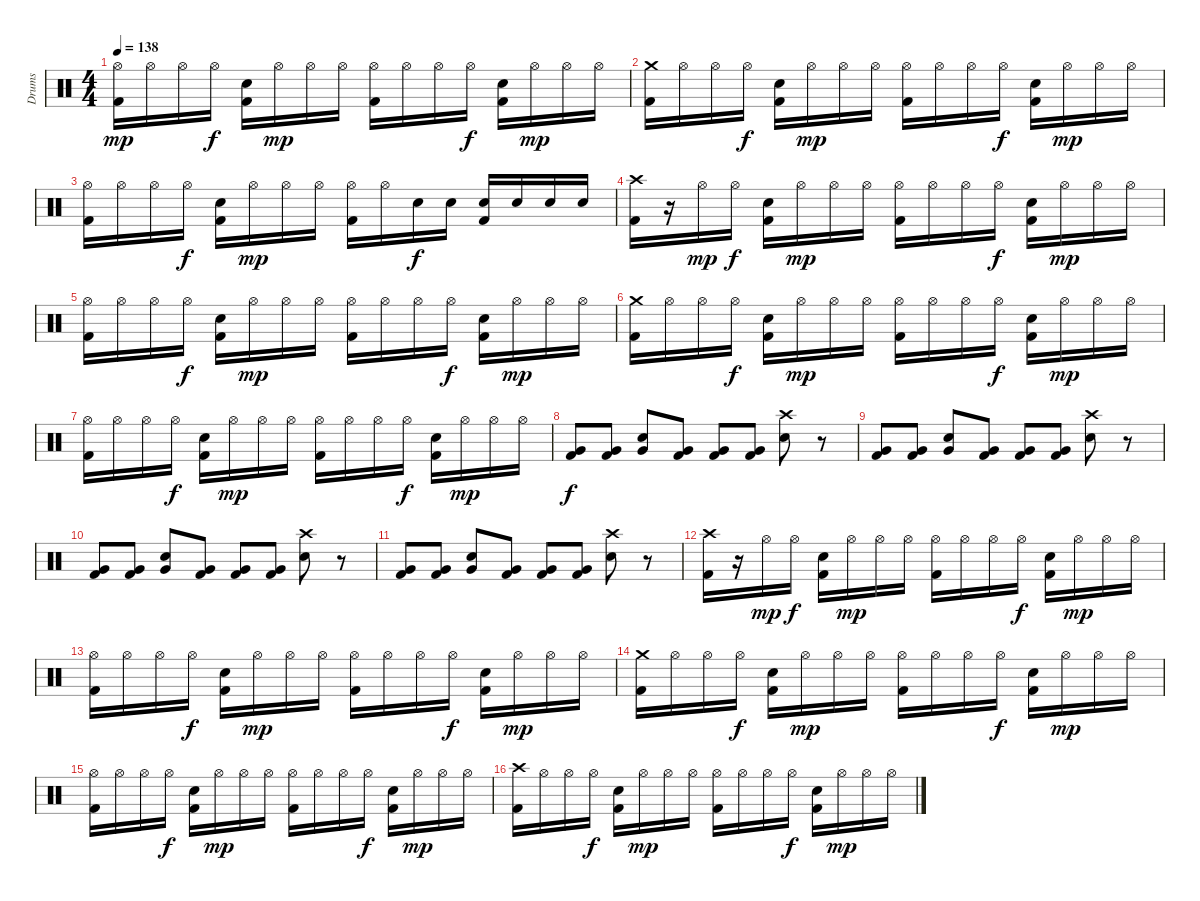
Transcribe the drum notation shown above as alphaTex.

\track ("Drums" "Drums") {instrument percussion}
\staff {score}
\articulation defaults
\ts (4 4)
\tempo 138
\clef neutral
\ks c
("Hi-Hat (open)" "Kick (hit) 2").16{dy mp} "Hi-Hat (open)".16 "Hi-Hat (open)".16 "Hi-Hat (open)".16{dy f} ("Electric Snare (hit)" "Kick (hit) 2").16 "Hi-Hat (open)".16{dy mp} "Hi-Hat (open)".16 "Hi-Hat (open)".16 ("Hi-Hat (open)" "Kick (hit) 2").16 "Hi-Hat (open)".16 "Hi-Hat (open)".16 "Hi-Hat (open)".16{dy f} ("Electric Snare (hit)" "Kick (hit) 2").16 "Hi-Hat (open)".16{dy mp} "Hi-Hat (open)".16 "Hi-Hat (open)".16 |
("Crash medium (hit)" "Kick (hit) 2").16 "Hi-Hat (open)".16 "Hi-Hat (open)".16 "Hi-Hat (open)".16{dy f} ("Electric Snare (hit)" "Kick (hit) 2").16 "Hi-Hat (open)".16{dy mp} "Hi-Hat (open)".16 "Hi-Hat (open)".16 ("Hi-Hat (open)" "Kick (hit) 2").16 "Hi-Hat (open)".16 "Hi-Hat (open)".16 "Hi-Hat (open)".16{dy f} ("Electric Snare (hit)" "Kick (hit) 2").16 "Hi-Hat (open)".16{dy mp} "Hi-Hat (open)".16 "Hi-Hat (open)".16 |
("Hi-Hat (open)" "Kick (hit) 2").16 "Hi-Hat (open)".16 "Hi-Hat (open)".16 "Hi-Hat (open)".16{dy f} ("Electric Snare (hit)" "Kick (hit) 2").16 "Hi-Hat (open)".16{dy mp} "Hi-Hat (open)".16 "Hi-Hat (open)".16 ("Hi-Hat (open)" "Kick (hit) 2").16 "Hi-Hat (open)".16 "Electric Snare (hit)".16{dy f} "Electric Snare (hit)".16 ("Electric Snare (hit)" "Kick (hit) 2").16 "Electric Snare (hit)".16 "Electric Snare (hit)".16 "Electric Snare (hit)".16 |
("Crash high (hit)" "Kick (hit) 2").16 r.16 "Hi-Hat (open)".16{dy mp} "Hi-Hat (open)".16{dy f} ("Electric Snare (hit)" "Kick (hit) 2").16 "Hi-Hat (open)".16{dy mp} "Hi-Hat (open)".16 "Hi-Hat (open)".16 ("Hi-Hat (open)" "Kick (hit) 2").16 "Hi-Hat (open)".16 "Hi-Hat (open)".16 "Hi-Hat (open)".16{dy f} ("Electric Snare (hit)" "Kick (hit) 2").16 "Hi-Hat (open)".16{dy mp} "Hi-Hat (open)".16 "Hi-Hat (open)".16 |
("Hi-Hat (open)" "Kick (hit) 2").16 "Hi-Hat (open)".16 "Hi-Hat (open)".16 "Hi-Hat (open)".16{dy f} ("Electric Snare (hit)" "Kick (hit) 2").16 "Hi-Hat (open)".16{dy mp} "Hi-Hat (open)".16 "Hi-Hat (open)".16 ("Hi-Hat (open)" "Kick (hit) 2").16 "Hi-Hat (open)".16 "Hi-Hat (open)".16 "Hi-Hat (open)".16{dy f} ("Electric Snare (hit)" "Kick (hit) 2").16 "Hi-Hat (open)".16{dy mp} "Hi-Hat (open)".16 "Hi-Hat (open)".16 |
("Crash medium (hit)" "Kick (hit) 2").16 "Hi-Hat (open)".16 "Hi-Hat (open)".16 "Hi-Hat (open)".16{dy f} ("Electric Snare (hit)" "Kick (hit) 2").16 "Hi-Hat (open)".16{dy mp} "Hi-Hat (open)".16 "Hi-Hat (open)".16 ("Hi-Hat (open)" "Kick (hit) 2").16 "Hi-Hat (open)".16 "Hi-Hat (open)".16 "Hi-Hat (open)".16{dy f} ("Electric Snare (hit)" "Kick (hit) 2").16 "Hi-Hat (open)".16{dy mp} "Hi-Hat (open)".16 "Hi-Hat (open)".16 |
("Hi-Hat (open)" "Kick (hit) 2").16 "Hi-Hat (open)".16 "Hi-Hat (open)".16 "Hi-Hat (open)".16{dy f} ("Electric Snare (hit)" "Kick (hit) 2").16 "Hi-Hat (open)".16{dy mp} "Hi-Hat (open)".16 "Hi-Hat (open)".16 ("Hi-Hat (open)" "Kick (hit) 2").16 "Hi-Hat (open)".16 "Hi-Hat (open)".16 "Hi-Hat (open)".16{dy f} ("Electric Snare (hit)" "Kick (hit) 2").16 "Hi-Hat (open)".16{dy mp} "Hi-Hat (open)".16 "Hi-Hat (open)".16 |
("Very Low Tom (hit)" "Kick (hit) 2").8{dy f} ("Very Low Tom (hit)" "Kick (hit) 2").8 ("Very Low Tom (hit)" "Electric Snare (hit)").8 ("Very Low Tom (hit)" "Kick (hit) 2").8 ("Very Low Tom (hit)" "Kick (hit) 2").8 ("Very Low Tom (hit)" "Kick (hit) 2").8 ("Crash high (hit)" "Electric Snare (hit)").8 r.8 |
("Very Low Tom (hit)" "Kick (hit) 2").8 ("Very Low Tom (hit)" "Kick (hit) 2").8 ("Very Low Tom (hit)" "Electric Snare (hit)").8 ("Very Low Tom (hit)" "Kick (hit) 2").8 ("Very Low Tom (hit)" "Kick (hit) 2").8 ("Very Low Tom (hit)" "Kick (hit) 2").8 ("Crash high (hit)" "Electric Snare (hit)").8 r.8 |
("Very Low Tom (hit)" "Kick (hit) 2").8 ("Very Low Tom (hit)" "Kick (hit) 2").8 ("Very Low Tom (hit)" "Electric Snare (hit)").8 ("Very Low Tom (hit)" "Kick (hit) 2").8 ("Very Low Tom (hit)" "Kick (hit) 2").8 ("Very Low Tom (hit)" "Kick (hit) 2").8 ("Crash high (hit)" "Electric Snare (hit)").8 r.8 |
("Very Low Tom (hit)" "Kick (hit) 2").8 ("Very Low Tom (hit)" "Kick (hit) 2").8 ("Very Low Tom (hit)" "Electric Snare (hit)").8 ("Very Low Tom (hit)" "Kick (hit) 2").8 ("Very Low Tom (hit)" "Kick (hit) 2").8 ("Very Low Tom (hit)" "Kick (hit) 2").8 ("Crash high (hit)" "Electric Snare (hit)").8 r.8 |
("Crash high (hit)" "Kick (hit) 2").16 r.16 "Hi-Hat (open)".16{dy mp} "Hi-Hat (open)".16{dy f} ("Electric Snare (hit)" "Kick (hit) 2").16 "Hi-Hat (open)".16{dy mp} "Hi-Hat (open)".16 "Hi-Hat (open)".16 ("Hi-Hat (open)" "Kick (hit) 2").16 "Hi-Hat (open)".16 "Hi-Hat (open)".16 "Hi-Hat (open)".16{dy f} ("Electric Snare (hit)" "Kick (hit) 2").16 "Hi-Hat (open)".16{dy mp} "Hi-Hat (open)".16 "Hi-Hat (open)".16 |
("Hi-Hat (open)" "Kick (hit) 2").16 "Hi-Hat (open)".16 "Hi-Hat (open)".16 "Hi-Hat (open)".16{dy f} ("Electric Snare (hit)" "Kick (hit) 2").16 "Hi-Hat (open)".16{dy mp} "Hi-Hat (open)".16 "Hi-Hat (open)".16 ("Hi-Hat (open)" "Kick (hit) 2").16 "Hi-Hat (open)".16 "Hi-Hat (open)".16 "Hi-Hat (open)".16{dy f} ("Electric Snare (hit)" "Kick (hit) 2").16 "Hi-Hat (open)".16{dy mp} "Hi-Hat (open)".16 "Hi-Hat (open)".16 |
("Crash medium (hit)" "Kick (hit) 2").16 "Hi-Hat (open)".16 "Hi-Hat (open)".16 "Hi-Hat (open)".16{dy f} ("Electric Snare (hit)" "Kick (hit) 2").16 "Hi-Hat (open)".16{dy mp} "Hi-Hat (open)".16 "Hi-Hat (open)".16 ("Hi-Hat (open)" "Kick (hit) 2").16 "Hi-Hat (open)".16 "Hi-Hat (open)".16 "Hi-Hat (open)".16{dy f} ("Electric Snare (hit)" "Kick (hit) 2").16 "Hi-Hat (open)".16{dy mp} "Hi-Hat (open)".16 "Hi-Hat (open)".16 |
("Hi-Hat (open)" "Kick (hit) 2").16 "Hi-Hat (open)".16 "Hi-Hat (open)".16 "Hi-Hat (open)".16{dy f} ("Electric Snare (hit)" "Kick (hit) 2").16 "Hi-Hat (open)".16{dy mp} "Hi-Hat (open)".16 "Hi-Hat (open)".16 ("Hi-Hat (open)" "Kick (hit) 2").16 "Hi-Hat (open)".16 "Hi-Hat (open)".16 "Hi-Hat (open)".16{dy f} ("Electric Snare (hit)" "Kick (hit) 2").16 "Hi-Hat (open)".16{dy mp} "Hi-Hat (open)".16 "Hi-Hat (open)".16 |
("Crash high (hit)" "Kick (hit) 2").16 "Hi-Hat (open)".16 "Hi-Hat (open)".16 "Hi-Hat (open)".16{dy f} ("Electric Snare (hit)" "Kick (hit) 2").16 "Hi-Hat (open)".16{dy mp} "Hi-Hat (open)".16 "Hi-Hat (open)".16 ("Hi-Hat (open)" "Kick (hit) 2").16 "Hi-Hat (open)".16 "Hi-Hat (open)".16 "Hi-Hat (open)".16{dy f} ("Electric Snare (hit)" "Kick (hit) 2").16 "Hi-Hat (open)".16{dy mp} "Hi-Hat (open)".16 "Hi-Hat (open)".16
